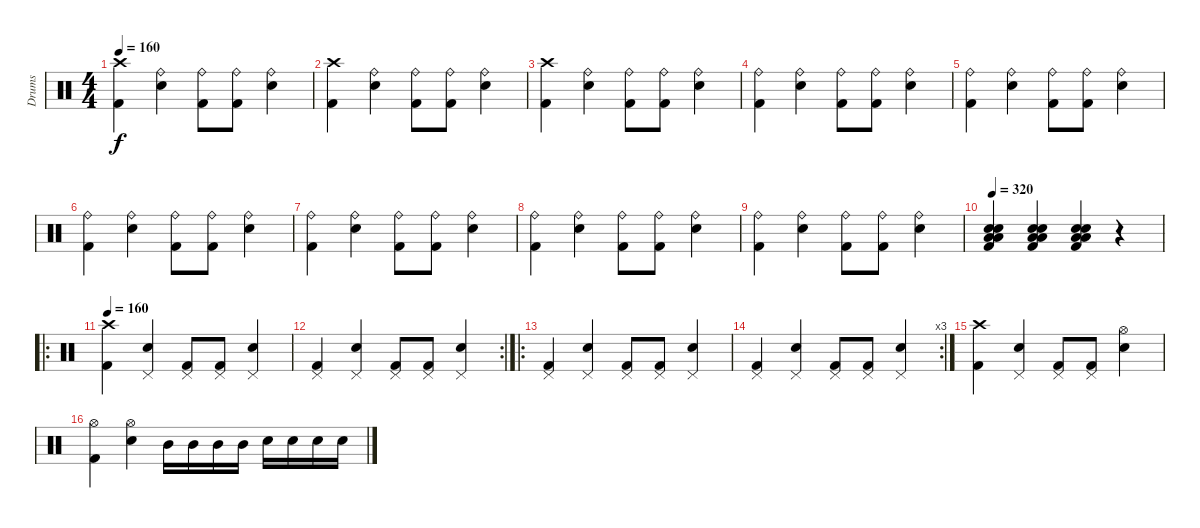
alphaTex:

\track ("Drums" "Drums") {instrument percussion}
\staff {score}
\articulation defaults
\ts (4 4)
\tempo 160
\clef neutral
\ks c
("Crash high (hit)" "Kick (hit) 2").4{dy f} ("Electric Snare (hit)" "Ride (bell)").4 ("Kick (hit) 2" "Ride (bell)").8 ("Kick (hit) 2" "Ride (bell)").8 ("Electric Snare (hit)" "Ride (bell)").4 |
("Kick (hit) 2" "Crash high (hit)").4 ("Electric Snare (hit)" "Ride (bell)").4 ("Kick (hit) 2" "Ride (bell)").8 ("Kick (hit) 2" "Ride (bell)").8 ("Electric Snare (hit)" "Ride (bell)").4 |
("Crash high (hit)" "Kick (hit) 2").4 ("Electric Snare (hit)" "Ride (bell)").4 ("Kick (hit) 2" "Ride (bell)").8 ("Kick (hit) 2" "Ride (bell)").8 ("Electric Snare (hit)" "Ride (bell)").4 |
("Kick (hit) 2" "Ride (bell)").4 ("Electric Snare (hit)" "Ride (bell)").4 ("Kick (hit) 2" "Ride (bell)").8 ("Kick (hit) 2" "Ride (bell)").8 ("Electric Snare (hit)" "Ride (bell)").4 |
("Ride (bell)" "Kick (hit) 2").4 ("Electric Snare (hit)" "Ride (bell)").4 ("Kick (hit) 2" "Ride (bell)").8 ("Kick (hit) 2" "Ride (bell)").8 ("Electric Snare (hit)" "Ride (bell)").4 |
("Kick (hit) 2" "Ride (bell)").4 ("Electric Snare (hit)" "Ride (bell)").4 ("Kick (hit) 2" "Ride (bell)").8 ("Kick (hit) 2" "Ride (bell)").8 ("Electric Snare (hit)" "Ride (bell)").4 |
("Ride (bell)" "Kick (hit) 2").4 ("Electric Snare (hit)" "Ride (bell)").4 ("Kick (hit) 2" "Ride (bell)").8 ("Kick (hit) 2" "Ride (bell)").8 ("Electric Snare (hit)" "Ride (bell)").4 |
("Kick (hit) 2" "Ride (bell)").4 ("Electric Snare (hit)" "Ride (bell)").4 ("Kick (hit) 2" "Ride (bell)").8 ("Kick (hit) 2" "Ride (bell)").8 ("Electric Snare (hit)" "Ride (bell)").4 |
("Kick (hit) 2" "Ride (bell)").4 ("Electric Snare (hit)" "Ride (bell)").4 ("Kick (hit) 2" "Ride (bell)").8 ("Kick (hit) 2" "Ride (bell)").8 ("Electric Snare (hit)" "Ride (bell)").4 |
\tempo 320
("Electric Snare (hit)" "Electric Snare (hit)" "Low Floor Tom (hit)" "Low Floor Tom (hit)" "Kick (hit) 2").4 ("Electric Snare (hit)" "Electric Snare (hit)" "Low Floor Tom (hit)" "Low Floor Tom (hit)" "Kick (hit) 2").4 ("Electric Snare (hit)" "Electric Snare (hit)" "Low Floor Tom (hit)" "Low Floor Tom (hit)" "Kick (hit) 2").4 r.4 |
\ro
\tempo 160
("Crash high (hit)" "Kick (hit) 2").4 ("Electric Snare (hit)" "Pedal Hi-Hat (hit)").4 ("Kick (hit) 2" "Pedal Hi-Hat (hit)").8 ("Kick (hit) 2" "Pedal Hi-Hat (hit)").8 ("Electric Snare (hit)" "Pedal Hi-Hat (hit)").4 |
\rc 2
("Kick (hit) 2" "Pedal Hi-Hat (hit)").4 ("Electric Snare (hit)" "Pedal Hi-Hat (hit)").4 ("Kick (hit) 2" "Pedal Hi-Hat (hit)").8 ("Kick (hit) 2" "Pedal Hi-Hat (hit)").8 ("Electric Snare (hit)" "Pedal Hi-Hat (hit)").4 |
\ro
("Pedal Hi-Hat (hit)" "Kick (hit) 2").4 ("Electric Snare (hit)" "Pedal Hi-Hat (hit)").4 ("Kick (hit) 2" "Pedal Hi-Hat (hit)").8 ("Kick (hit) 2" "Pedal Hi-Hat (hit)").8 ("Electric Snare (hit)" "Pedal Hi-Hat (hit)").4 |
\rc 3
("Kick (hit) 2" "Pedal Hi-Hat (hit)").4 ("Electric Snare (hit)" "Pedal Hi-Hat (hit)").4 ("Kick (hit) 2" "Pedal Hi-Hat (hit)").8 ("Kick (hit) 2" "Pedal Hi-Hat (hit)").8 ("Electric Snare (hit)" "Pedal Hi-Hat (hit)").4 |
("Crash high (hit)" "Kick (hit) 2").4 ("Electric Snare (hit)" "Pedal Hi-Hat (hit)").4 ("Kick (hit) 2" "Pedal Hi-Hat (hit)").8 ("Kick (hit) 2" "Pedal Hi-Hat (hit)").8 ("Electric Snare (hit)" "Hi-Hat (open)").4 |
("Kick (hit) 2" "Hi-Hat (open)").4 ("Electric Snare (hit)" "Hi-Hat (open)").4 "Mid Tom (hit)".16 "Mid Tom (hit)".16 "Mid Tom (hit)".16 "Mid Tom (hit)".16 "Electric Snare (hit)".16 "Electric Snare (hit)".16 "Electric Snare (hit)".16 "Electric Snare (hit)".16
